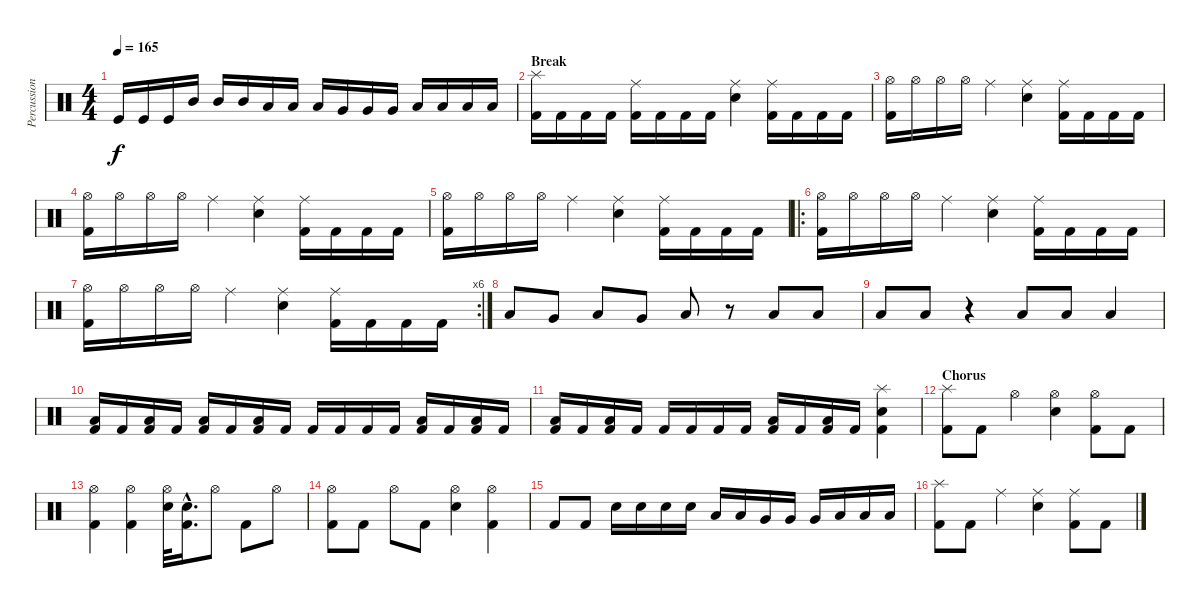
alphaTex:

\track ("Percussions" "Percussion") {instrument percussion}
\staff {score}
\articulation defaults
\ts (4 4)
\tempo 165
\clef neutral
\ks c "Kick (hit)".16{dy f} "Kick (hit)".16 "Kick (hit)".16 "Mid Tom (hit)".16 "Mid Tom (hit)".16 "Mid Tom (hit)".16 "Low Tom (hit)".16 "Low Tom (hit)".16 "Low Tom (hit)".16 "Very Low Tom (hit)".16 "Very Low Tom (hit)".16 "Very Low Tom (hit)".16 "Low Floor Tom (hit)".16 "Low Floor Tom (hit)".16 "Low Floor Tom (hit)".16 "Low Floor Tom (hit)".16
|
\section ("" "Break")
("Splash (hit)" "Kick (hit) 2").16 "Kick (hit) 2".16 "Kick (hit) 2".16 "Kick (hit) 2".16 ("Ride (middle)" "Kick (hit) 2").16 "Kick (hit) 2".16 "Kick (hit) 2".16 "Kick (hit) 2".16 ("Ride (middle)" "Electric Snare (hit)").4 ("Ride (middle)" "Kick (hit) 2").16 "Kick (hit) 2".16 "Kick (hit) 2".16 "Kick (hit) 2".16 |
("Hi-Hat (open)" "Kick (hit) 2").16 "Hi-Hat (open)".16 "Hi-Hat (open)".16 "Hi-Hat (open)".16 "Ride (middle)".4 ("Ride (middle)" "Electric Snare (hit)").4 ("Ride (middle)" "Kick (hit) 2").16 "Kick (hit) 2".16 "Kick (hit) 2".16 "Kick (hit) 2".16 |
("Hi-Hat (open)" "Kick (hit) 2").16 "Hi-Hat (open)".16 "Hi-Hat (open)".16 "Hi-Hat (open)".16 "Ride (middle)".4 ("Ride (middle)" "Electric Snare (hit)").4 ("Ride (middle)" "Kick (hit) 2").16 "Kick (hit) 2".16 "Kick (hit) 2".16 "Kick (hit) 2".16 |
("Hi-Hat (open)" "Kick (hit) 2").16 "Hi-Hat (open)".16 "Hi-Hat (open)".16 "Hi-Hat (open)".16 "Ride (middle)".4 ("Ride (middle)" "Electric Snare (hit)").4 ("Ride (middle)" "Kick (hit) 2").16 "Kick (hit) 2".16 "Kick (hit) 2".16 "Kick (hit) 2".16 |
\ro
("Hi-Hat (open)" "Kick (hit) 2").16 "Hi-Hat (open)".16 "Hi-Hat (open)".16 "Hi-Hat (open)".16 "Ride (middle)".4 ("Ride (middle)" "Electric Snare (hit)").4 ("Ride (middle)" "Kick (hit) 2").16 "Kick (hit) 2".16 "Kick (hit) 2".16 "Kick (hit) 2".16 |
\rc 6
("Hi-Hat (open)" "Kick (hit) 2").16 "Hi-Hat (open)".16 "Hi-Hat (open)".16 "Hi-Hat (open)".16 "Ride (middle)".4 ("Ride (middle)" "Electric Snare (hit)").4 ("Ride (middle)" "Kick (hit) 2").16 "Kick (hit) 2".16 "Kick (hit) 2".16 "Kick (hit) 2".16 |
"Low Floor Tom (hit)".8 "Very Low Tom (hit)".8 "Low Floor Tom (hit)".8 "Very Low Tom (hit)".8 "Low Floor Tom (hit)".8 r.8 "Low Floor Tom (hit)".8 "Low Floor Tom (hit)".8 |
"Low Floor Tom (hit)".8 "Low Floor Tom (hit)".8 r.4 "Low Floor Tom (hit)".8 "Low Floor Tom (hit)".8 "Low Floor Tom (hit)".4 |
("Low Floor Tom (hit)" "Kick (hit) 2").16 "Kick (hit) 2".16 ("Low Floor Tom (hit)" "Kick (hit) 2").16 "Kick (hit) 2".16 ("Low Floor Tom (hit)" "Kick (hit) 2").16 "Kick (hit) 2".16 ("Low Floor Tom (hit)" "Kick (hit) 2").16 "Kick (hit) 2".16 "Kick (hit) 2".16 "Kick (hit) 2".16 "Kick (hit) 2".16 "Kick (hit) 2".16 ("Low Floor Tom (hit)" "Kick (hit) 2").16 "Kick (hit) 2".16 ("Low Floor Tom (hit)" "Kick (hit) 2").16 "Kick (hit) 2".16 |
("Low Floor Tom (hit)" "Kick (hit) 2").16 "Kick (hit) 2".16 ("Low Floor Tom (hit)" "Kick (hit) 2").16 "Kick (hit) 2".16 "Kick (hit) 2".16 "Kick (hit) 2".16 "Kick (hit) 2".16 "Kick (hit) 2".16 ("Low Floor Tom (hit)" "Kick (hit) 2").16 "Kick (hit) 2".16 ("Low Floor Tom (hit)" "Kick (hit) 2").16 "Kick (hit) 2".16 ("Splash (hit)" "Electric Snare (hit)" "Kick (hit) 2").4 |
\section ("" "Chorus")
("Splash (hit)" "Kick (hit) 2").8 "Kick (hit) 2".8 "Hi-Hat (open)".4 ("Hi-Hat (open)" "Electric Snare (hit)").4 ("Hi-Hat (open)" "Kick (hit) 2").8 "Kick (hit) 2".8 |
("Hi-Hat (open)" "Kick (hit) 2").4 ("Hi-Hat (open)" "Kick (hit) 2").4 ("Hi-Hat (open)" "Electric Snare (hit)").32 ("Electric Snare (hit)"{hac} "Kick (hit) 2"{hac}).16{d} "Hi-Hat (open)".8 "Kick (hit) 2".8 "Hi-Hat (open)".8 |
("Hi-Hat (open)" "Kick (hit) 2").8 "Kick (hit) 2".8 "Hi-Hat (open)".8 "Kick (hit) 2".8 ("Hi-Hat (open)" "Electric Snare (hit)").4 ("Hi-Hat (open)" "Kick (hit) 2").4 |
"Kick (hit) 2".8 "Kick (hit) 2".8 "Electric Snare (hit)".16 "Electric Snare (hit)".16 "Electric Snare (hit)".16 "Electric Snare (hit)".16 "Low Tom (hit)".16 "Low Tom (hit)".16 "Very Low Tom (hit)".16 "Very Low Tom (hit)".16 "Very Low Tom (hit)".16 "Low Floor Tom (hit)".16 "Low Floor Tom (hit)".16 "Low Floor Tom (hit)".16 |
("Splash (hit)" "Kick (hit) 2").8 "Kick (hit) 2".8 "Ride (middle)".4 ("Ride (middle)" "Electric Snare (hit)").4 ("Ride (middle)" "Kick (hit) 2").8 "Kick (hit) 2".8
